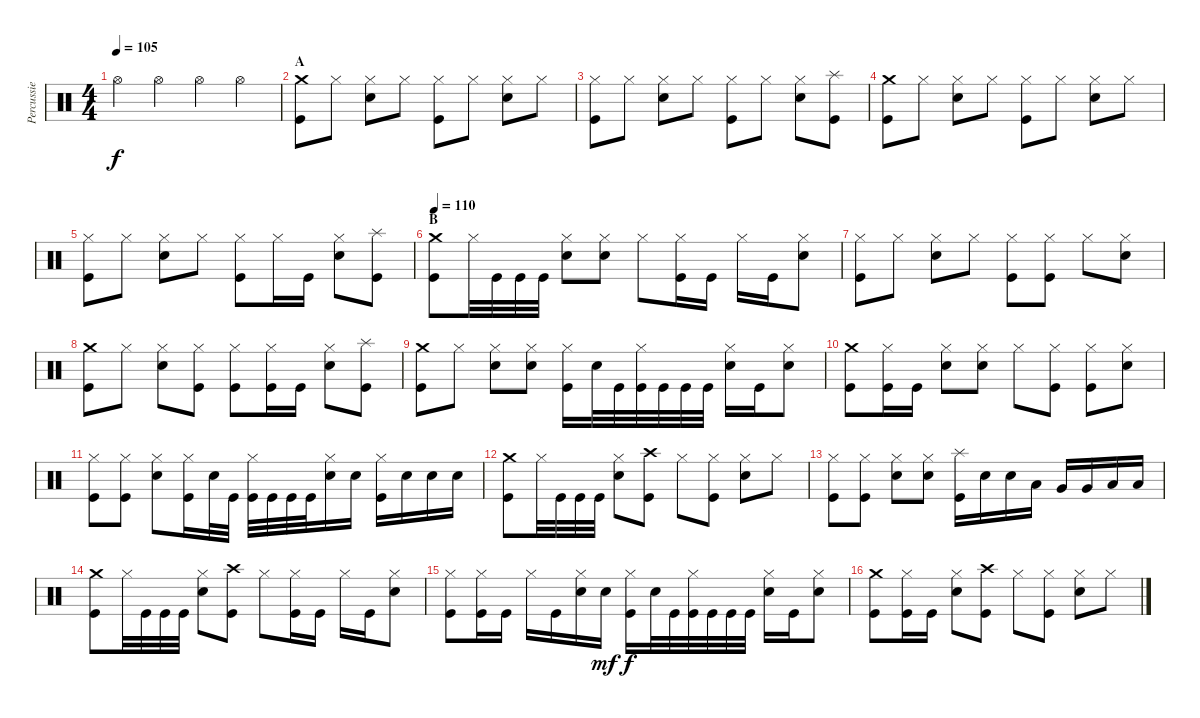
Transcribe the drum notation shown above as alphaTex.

\track ("Percussie" "Percussie") {instrument percussion}
\staff {score}
\articulation defaults
\ts (4 4)
\tempo 105
\clef neutral
\ks c "Hi-Hat (open)".4{dy f} "Hi-Hat (open)".4 "Hi-Hat (open)".4 "Hi-Hat (open)".4
|
\section ("" "A")
("Crash medium (hit)" "Kick (hit)").8 "Hi-Hat (closed)".8 ("Hi-Hat (closed)" "Electric Snare (hit)").8 "Hi-Hat (closed)".8 ("Hi-Hat (closed)" "Kick (hit)").8 "Hi-Hat (closed)".8 ("Hi-Hat (closed)" "Electric Snare (hit)").8 "Hi-Hat (closed)".8 |
("Hi-Hat (closed)" "Kick (hit)").8 "Hi-Hat (closed)".8 ("Hi-Hat (closed)" "Electric Snare (hit)").8 "Hi-Hat (closed)".8 ("Hi-Hat (closed)" "Kick (hit)").8 "Hi-Hat (closed)".8 ("Hi-Hat (closed)" "Electric Snare (hit)").8 ("Splash (hit)" "Kick (hit)").8 |
("Crash medium (hit)" "Kick (hit)").8 "Hi-Hat (closed)".8 ("Hi-Hat (closed)" "Electric Snare (hit)").8 "Hi-Hat (closed)".8 ("Hi-Hat (closed)" "Kick (hit)").8 "Hi-Hat (closed)".8 ("Hi-Hat (closed)" "Electric Snare (hit)").8 "Hi-Hat (closed)".8 |
("Hi-Hat (closed)" "Kick (hit)").8 "Hi-Hat (closed)".8 ("Hi-Hat (closed)" "Electric Snare (hit)").8 "Hi-Hat (closed)".8 ("Hi-Hat (closed)" "Kick (hit)").8 "Hi-Hat (closed)".16 "Kick (hit)".16 ("Hi-Hat (closed)" "Electric Snare (hit)").8 ("Splash (hit)" "Kick (hit)").8 |
\section ("" "B")
\tempo 110
("Crash medium (hit)" "Kick (hit)").8 "Hi-Hat (closed)".32 "Kick (hit)".32 "Kick (hit)".32 "Kick (hit)".32 ("Hi-Hat (closed)" "Electric Snare (hit)").8 ("Hi-Hat (closed)" "Electric Snare (hit)").8 "Hi-Hat (closed)".8 ("Hi-Hat (closed)" "Kick (hit)").16 "Kick (hit)".16 "Hi-Hat (closed)".16 "Kick (hit)".16 ("Hi-Hat (closed)" "Electric Snare (hit)").8 |
("Hi-Hat (closed)" "Kick (hit)").8 "Hi-Hat (closed)".8 ("Hi-Hat (closed)" "Electric Snare (hit)").8 "Hi-Hat (closed)".8 ("Hi-Hat (closed)" "Kick (hit)").8 ("Hi-Hat (closed)" "Kick (hit)").8 "Hi-Hat (closed)".8 ("Hi-Hat (closed)" "Electric Snare (hit)").8 |
("Crash medium (hit)" "Kick (hit)").8 "Hi-Hat (closed)".8 ("Hi-Hat (closed)" "Electric Snare (hit)").8 ("Hi-Hat (closed)" "Kick (hit)").8 ("Hi-Hat (closed)" "Kick (hit)").8 ("Hi-Hat (closed)" "Kick (hit)").16 "Kick (hit)".16 ("Hi-Hat (closed)" "Electric Snare (hit)").8 ("Splash (hit)" "Kick (hit)").8 |
("Crash medium (hit)" "Kick (hit)").8 "Hi-Hat (closed)".8 ("Hi-Hat (closed)" "Electric Snare (hit)").8 ("Hi-Hat (closed)" "Electric Snare (hit)").8 ("Hi-Hat (closed)" "Kick (hit)").16 "Electric Snare (hit)".32 "Kick (hit)".32 ("Hi-Hat (closed)" "Kick (hit)").32 "Kick (hit)".32 "Kick (hit)".32 "Kick (hit)".32 ("Hi-Hat (closed)" "Electric Snare (hit)").16 "Kick (hit)".16 ("Hi-Hat (closed)" "Electric Snare (hit)").8 |
("Crash medium (hit)" "Kick (hit)").8 ("Hi-Hat (closed)" "Kick (hit)").16 "Kick (hit)".16 ("Hi-Hat (closed)" "Electric Snare (hit)").8 ("Hi-Hat (closed)" "Electric Snare (hit)").8 "Hi-Hat (closed)".8 ("Hi-Hat (closed)" "Kick (hit)").8 ("Hi-Hat (closed)" "Kick (hit)").8 ("Hi-Hat (closed)" "Electric Snare (hit)").8 |
("Hi-Hat (closed)" "Kick (hit)").8 ("Hi-Hat (closed)" "Kick (hit)").8 ("Hi-Hat (closed)" "Electric Snare (hit)").8 ("Hi-Hat (closed)" "Kick (hit)").16 "Electric Snare (hit)".32 "Kick (hit)".32 ("Hi-Hat (closed)" "Kick (hit)").32 "Kick (hit)".32 "Kick (hit)".32 "Kick (hit)".32 ("Hi-Hat (closed)" "Electric Snare (hit)").16 "Electric Snare (hit)".16 ("Hi-Hat (closed)" "Kick (hit)").16 "Electric Snare (hit)".16 "Electric Snare (hit)".16 "Electric Snare (hit)".16 |
("Crash medium (hit)" "Kick (hit)").8 "Hi-Hat (closed)".32 "Kick (hit)".32 "Kick (hit)".32 "Kick (hit)".32 ("Hi-Hat (closed)" "Electric Snare (hit)").8 ("Crash high (hit)" "Kick (hit)").8 "Hi-Hat (closed)".8 ("Hi-Hat (closed)" "Kick (hit)").8 ("Hi-Hat (closed)" "Electric Snare (hit)").8 "Hi-Hat (closed)".8 |
("Hi-Hat (closed)" "Kick (hit)").8 ("Hi-Hat (closed)" "Kick (hit)").8 ("Hi-Hat (closed)" "Electric Snare (hit)").8 ("Hi-Hat (closed)" "Electric Snare (hit)").8 ("Splash (hit)" "Kick (hit)").16 "Electric Snare (hit)".16 "Electric Snare (hit)".16 "Low Tom (hit)".16 "Very Low Tom (hit)".16 "Very Low Tom (hit)".16 "Low Floor Tom (hit)".16 "Low Floor Tom (hit)".16 |
("Crash medium (hit)" "Kick (hit)").8 "Hi-Hat (closed)".32 "Kick (hit)".32 "Kick (hit)".32 "Kick (hit)".32 ("Hi-Hat (closed)" "Electric Snare (hit)").8 ("Crash high (hit)" "Kick (hit)").8 "Hi-Hat (closed)".8 ("Hi-Hat (closed)" "Kick (hit)").16 "Kick (hit)".16 "Hi-Hat (closed)".16 "Kick (hit)".16 ("Hi-Hat (closed)" "Electric Snare (hit)").8 |
("Hi-Hat (closed)" "Kick (hit)").8 ("Hi-Hat (closed)" "Kick (hit)").16 "Kick (hit)".16 "Hi-Hat (closed)".16 "Kick (hit)".16 ("Hi-Hat (closed)" "Electric Snare (hit)").16 "Electric Snare (hit)".16{dy mf} ("Hi-Hat (closed)" "Kick (hit)").16{dy f} "Electric Snare (hit)".32 "Kick (hit)".32 ("Hi-Hat (closed)" "Kick (hit)").32 "Kick (hit)".32 "Kick (hit)".32 "Kick (hit)".32 ("Hi-Hat (closed)" "Electric Snare (hit)").16 "Kick (hit)".16 ("Hi-Hat (closed)" "Electric Snare (hit)").8 |
("Crash medium (hit)" "Kick (hit)").8 ("Hi-Hat (closed)" "Kick (hit)").16 "Kick (hit)".16 ("Hi-Hat (closed)" "Electric Snare (hit)").8 ("Crash high (hit)" "Kick (hit)").8 "Hi-Hat (closed)".8 ("Hi-Hat (closed)" "Kick (hit)").8 ("Hi-Hat (closed)" "Electric Snare (hit)").8 "Hi-Hat (closed)".8
